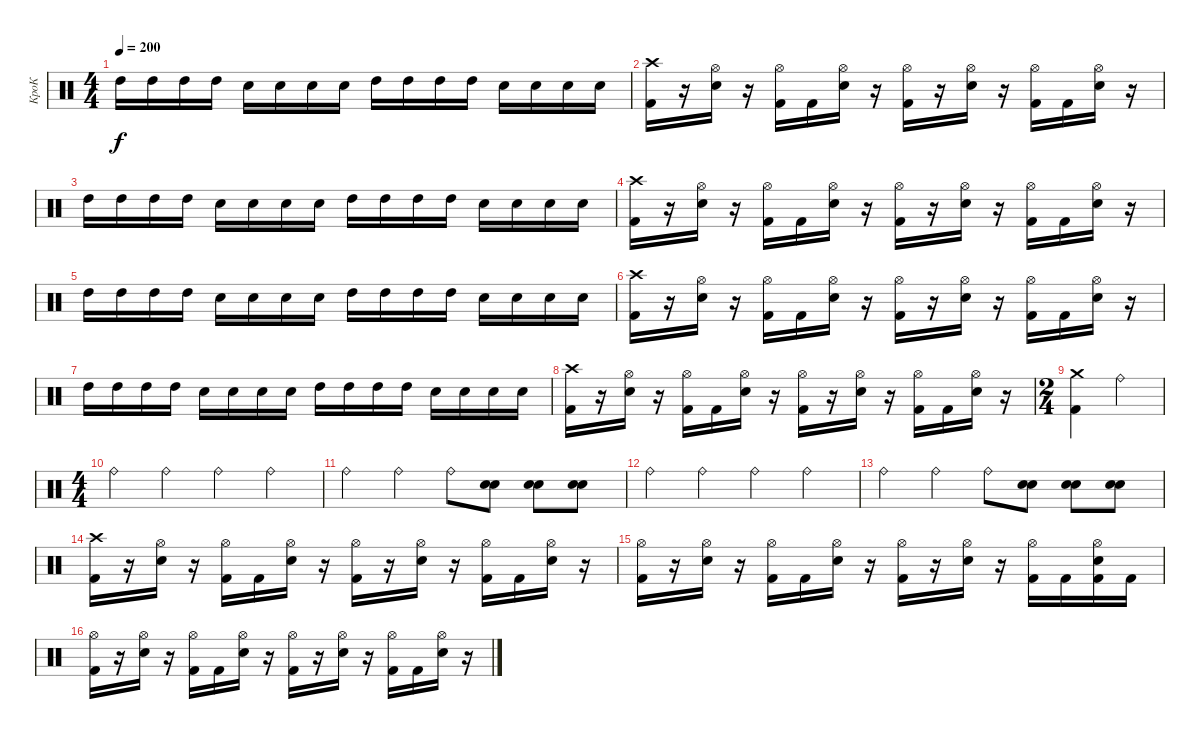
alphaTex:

\track ("КроК" "КроК") {instrument percussion}
\staff {score}
\articulation defaults
\ts (4 4)
\tempo 200
\clef neutral
\ks c "High Tom (hit)".16{dy f} "High Tom (hit)".16 "High Tom (hit)".16 "High Tom (hit)".16 "Electric Snare (hit)".16 "Electric Snare (hit)".16 "Electric Snare (hit)".16 "Electric Snare (hit)".16 "High Tom (hit)".16 "High Tom (hit)".16 "High Tom (hit)".16 "High Tom (hit)".16 "Electric Snare (hit)".16 "Electric Snare (hit)".16 "Electric Snare (hit)".16 "Electric Snare (hit)".16
|
("Crash high (hit)" "Kick (hit) 2").16 r.16 ("Hi-Hat (open)" "Electric Snare (hit)").16 r.16 ("Hi-Hat (open)" "Kick (hit) 2").16 "Kick (hit) 2".16 ("Hi-Hat (open)" "Electric Snare (hit)").16 r.16 ("Hi-Hat (open)" "Kick (hit) 2").16 r.16 ("Hi-Hat (open)" "Electric Snare (hit)").16 r.16 ("Hi-Hat (open)" "Kick (hit) 2").16 "Kick (hit) 2".16 ("Hi-Hat (open)" "Electric Snare (hit)").16 r.16 |
"High Tom (hit)".16 "High Tom (hit)".16 "High Tom (hit)".16 "High Tom (hit)".16 "Electric Snare (hit)".16 "Electric Snare (hit)".16 "Electric Snare (hit)".16 "Electric Snare (hit)".16 "High Tom (hit)".16 "High Tom (hit)".16 "High Tom (hit)".16 "High Tom (hit)".16 "Electric Snare (hit)".16 "Electric Snare (hit)".16 "Electric Snare (hit)".16 "Electric Snare (hit)".16 |
("Crash high (hit)" "Kick (hit) 2").16 r.16 ("Hi-Hat (open)" "Electric Snare (hit)").16 r.16 ("Hi-Hat (open)" "Kick (hit) 2").16 "Kick (hit) 2".16 ("Hi-Hat (open)" "Electric Snare (hit)").16 r.16 ("Hi-Hat (open)" "Kick (hit) 2").16 r.16 ("Hi-Hat (open)" "Electric Snare (hit)").16 r.16 ("Hi-Hat (open)" "Kick (hit) 2").16 "Kick (hit) 2".16 ("Hi-Hat (open)" "Electric Snare (hit)").16 r.16 |
"High Tom (hit)".16 "High Tom (hit)".16 "High Tom (hit)".16 "High Tom (hit)".16 "Electric Snare (hit)".16 "Electric Snare (hit)".16 "Electric Snare (hit)".16 "Electric Snare (hit)".16 "High Tom (hit)".16 "High Tom (hit)".16 "High Tom (hit)".16 "High Tom (hit)".16 "Electric Snare (hit)".16 "Electric Snare (hit)".16 "Electric Snare (hit)".16 "Electric Snare (hit)".16 |
("Crash high (hit)" "Kick (hit) 2").16 r.16 ("Hi-Hat (open)" "Electric Snare (hit)").16 r.16 ("Hi-Hat (open)" "Kick (hit) 2").16 "Kick (hit) 2".16 ("Hi-Hat (open)" "Electric Snare (hit)").16 r.16 ("Hi-Hat (open)" "Kick (hit) 2").16 r.16 ("Hi-Hat (open)" "Electric Snare (hit)").16 r.16 ("Hi-Hat (open)" "Kick (hit) 2").16 "Kick (hit) 2".16 ("Hi-Hat (open)" "Electric Snare (hit)").16 r.16 |
"High Tom (hit)".16 "High Tom (hit)".16 "High Tom (hit)".16 "High Tom (hit)".16 "Electric Snare (hit)".16 "Electric Snare (hit)".16 "Electric Snare (hit)".16 "Electric Snare (hit)".16 "High Tom (hit)".16 "High Tom (hit)".16 "High Tom (hit)".16 "High Tom (hit)".16 "Electric Snare (hit)".16 "Electric Snare (hit)".16 "Electric Snare (hit)".16 "Electric Snare (hit)".16 |
("Crash high (hit)" "Kick (hit) 2").16 r.16 ("Hi-Hat (open)" "Electric Snare (hit)").16 r.16 ("Hi-Hat (open)" "Kick (hit) 2").16 "Kick (hit) 2".16 ("Hi-Hat (open)" "Electric Snare (hit)").16 r.16 ("Hi-Hat (open)" "Kick (hit) 2").16 r.16 ("Hi-Hat (open)" "Electric Snare (hit)").16 r.16 ("Hi-Hat (open)" "Kick (hit) 2").16 "Kick (hit) 2".16 ("Hi-Hat (open)" "Electric Snare (hit)").16 r.16 |
\ts (2 4)
("Crash medium (hit)" "Kick (hit) 2").4 "Ride (bell)".4 |
\ts (4 4)
"Ride (bell)".4 "Ride (bell)".4 "Ride (bell)".4 "Ride (bell)".4 |
"Ride (bell)".4 "Ride (bell)".4 "Ride (bell)".8 ("Electric Snare (hit)" "Electric Snare (hit)").8 ("Electric Snare (hit)" "Electric Snare (hit)").8 ("Electric Snare (hit)" "Electric Snare (hit)").8 |
"Ride (bell)".4 "Ride (bell)".4 "Ride (bell)".4 "Ride (bell)".4 |
"Ride (bell)".4 "Ride (bell)".4 "Ride (bell)".8 ("Electric Snare (hit)" "Electric Snare (hit)").8 ("Electric Snare (hit)" "Electric Snare (hit)").8 ("Electric Snare (hit)" "Electric Snare (hit)").8 |
("Crash high (hit)" "Kick (hit) 2").16 r.16 ("Hi-Hat (open)" "Electric Snare (hit)").16 r.16 ("Hi-Hat (open)" "Kick (hit) 2").16 "Kick (hit) 2".16 ("Hi-Hat (open)" "Electric Snare (hit)").16 r.16 ("Hi-Hat (open)" "Kick (hit) 2").16 r.16 ("Hi-Hat (open)" "Electric Snare (hit)").16 r.16 ("Hi-Hat (open)" "Kick (hit) 2").16 "Kick (hit) 2".16 ("Hi-Hat (open)" "Electric Snare (hit)").16 r.16 |
("Hi-Hat (open)" "Kick (hit) 2").16 r.16 ("Hi-Hat (open)" "Electric Snare (hit)").16 r.16 ("Hi-Hat (open)" "Kick (hit) 2").16 "Kick (hit) 2".16 ("Hi-Hat (open)" "Electric Snare (hit)").16 r.16 ("Hi-Hat (open)" "Kick (hit) 2").16 r.16 ("Hi-Hat (open)" "Electric Snare (hit)").16 r.16 ("Hi-Hat (open)" "Kick (hit) 2").16 "Kick (hit) 2".16 ("Hi-Hat (open)" "Electric Snare (hit)" "Kick (hit) 2").16 "Kick (hit) 2".16 |
("Hi-Hat (open)" "Kick (hit) 2").16 r.16 ("Hi-Hat (open)" "Electric Snare (hit)").16 r.16 ("Hi-Hat (open)" "Kick (hit) 2").16 "Kick (hit) 2".16 ("Hi-Hat (open)" "Electric Snare (hit)").16 r.16 ("Hi-Hat (open)" "Kick (hit) 2").16 r.16 ("Hi-Hat (open)" "Electric Snare (hit)").16 r.16 ("Hi-Hat (open)" "Kick (hit) 2").16 "Kick (hit) 2".16 ("Hi-Hat (open)" "Electric Snare (hit)").16 r.16
